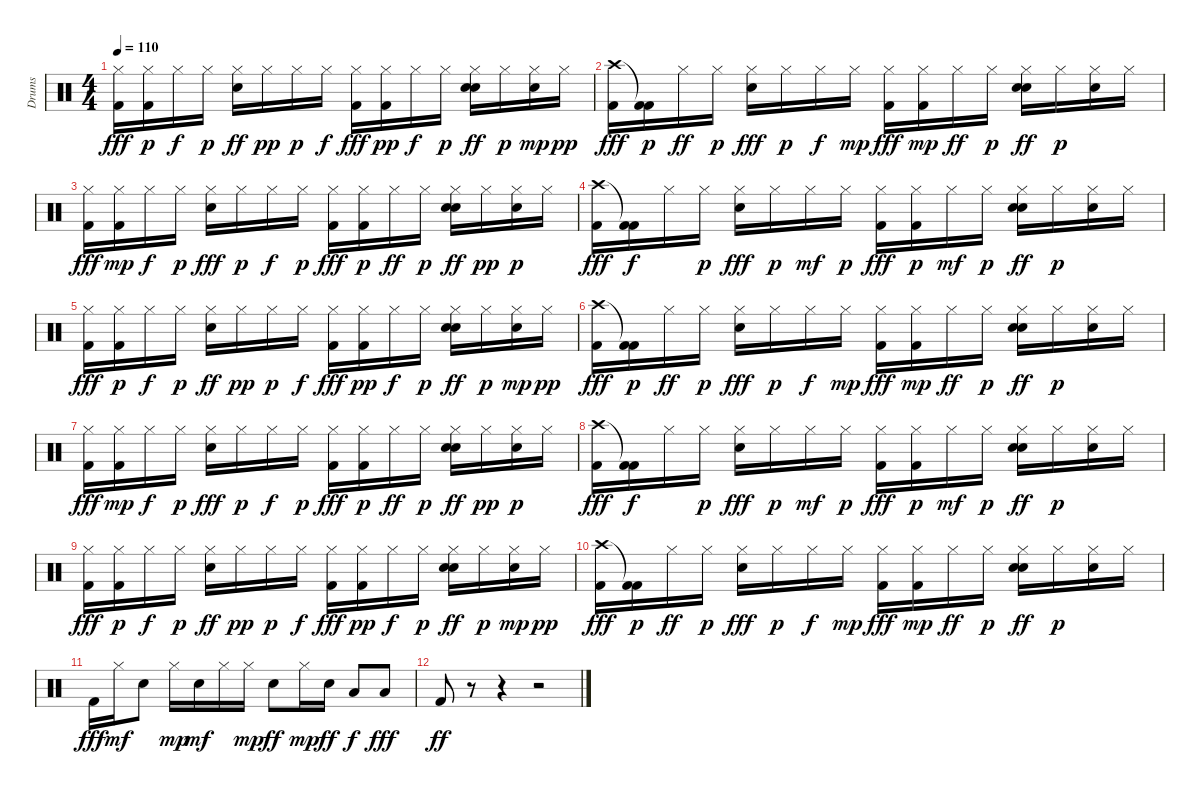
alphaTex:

\track ("Drums" "Drums") {instrument percussion}
\staff {score}
\articulation defaults
\ts (4 4)
\tempo 110
\clef neutral
\ks c
("Hi-Hat (closed)" "Kick (hit) 2").16{dy fff} ("Hi-Hat (closed)" "Kick (hit) 2").16{dy p} "Hi-Hat (closed)".16{dy f} "Hi-Hat (closed)".16{dy p} ("Hi-Hat (closed)" "Snare (hit) 2").16{dy ff} "Hi-Hat (closed)".16{dy pp} "Hi-Hat (closed)".16{dy p} "Hi-Hat (closed)".16{dy f} ("Hi-Hat (closed)" "Kick (hit) 2").16{dy fff} ("Hi-Hat (closed)" "Kick (hit) 2").16{dy pp} "Hi-Hat (closed)".16{dy f} "Hi-Hat (closed)".16{dy p} ("Hi-Hat (closed)" "Snare (hit) 2" "Hand Clap (hit)").16{dy ff} "Hi-Hat (closed)".16{dy p} ("Hi-Hat (closed)" "Hand Clap (hit)").16{dy mp} "Hi-Hat (closed)".16{dy pp} |
("Crash high (hit)" "Kick (hit) 2").16{dy fff} ("Kick (hit) 2"{t} "Kick (hit) 2").16{dy p} "Hi-Hat (closed)".16{dy ff} "Hi-Hat (closed)".16{dy p} ("Hi-Hat (closed)" "Snare (hit) 2").16{dy fff} "Hi-Hat (closed)".16{dy p} "Hi-Hat (closed)".16{dy f} "Hi-Hat (closed)".16{dy mp} ("Hi-Hat (closed)" "Kick (hit) 2").16{dy fff} ("Hi-Hat (closed)" "Kick (hit) 2").16{dy mp} "Hi-Hat (closed)".16{dy ff} "Hi-Hat (closed)".16{dy p} ("Hi-Hat (closed)" "Snare (hit) 2" "Hand Clap (hit)").16{dy ff} "Hi-Hat (closed)".16{dy p} ("Hi-Hat (closed)" "Hand Clap (hit)").16 "Hi-Hat (closed)".16 |
("Hi-Hat (closed)" "Kick (hit) 2").16{dy fff} ("Hi-Hat (closed)" "Kick (hit) 2").16{dy mp} "Hi-Hat (closed)".16{dy f} "Hi-Hat (closed)".16{dy p} ("Hi-Hat (closed)" "Snare (hit) 2").16{dy fff} "Hi-Hat (closed)".16{dy p} "Hi-Hat (closed)".16{dy f} "Hi-Hat (closed)".16{dy p} ("Hi-Hat (closed)" "Kick (hit) 2").16{dy fff} ("Hi-Hat (closed)" "Kick (hit) 2").16{dy p} "Hi-Hat (closed)".16{dy ff} "Hi-Hat (closed)".16{dy p} ("Hi-Hat (closed)" "Snare (hit) 2" "Hand Clap (hit)").16{dy ff} "Hi-Hat (closed)".16{dy pp} ("Hi-Hat (closed)" "Hand Clap (hit)").16{dy p} "Hi-Hat (closed)".16 |
("Crash high (hit)" "Kick (hit) 2").16{dy fff} ("Kick (hit) 2"{t} "Kick (hit) 2").16{dy f} "Hi-Hat (closed)".16 "Hi-Hat (closed)".16{dy p} ("Hi-Hat (closed)" "Snare (hit) 2").16{dy fff} "Hi-Hat (closed)".16{dy p} "Hi-Hat (closed)".16{dy mf} "Hi-Hat (closed)".16{dy p} ("Hi-Hat (closed)" "Kick (hit) 2").16{dy fff} ("Hi-Hat (closed)" "Kick (hit) 2").16{dy p} "Hi-Hat (closed)".16{dy mf} "Hi-Hat (closed)".16{dy p} ("Hi-Hat (closed)" "Snare (hit) 2" "Hand Clap (hit)").16{dy ff} "Hi-Hat (closed)".16{dy p} ("Hi-Hat (closed)" "Hand Clap (hit)").16 "Hi-Hat (closed)".16 |
("Hi-Hat (closed)" "Kick (hit) 2").16{dy fff} ("Hi-Hat (closed)" "Kick (hit) 2").16{dy p} "Hi-Hat (closed)".16{dy f} "Hi-Hat (closed)".16{dy p} ("Hi-Hat (closed)" "Snare (hit) 2").16{dy ff} "Hi-Hat (closed)".16{dy pp} "Hi-Hat (closed)".16{dy p} "Hi-Hat (closed)".16{dy f} ("Hi-Hat (closed)" "Kick (hit) 2").16{dy fff} ("Hi-Hat (closed)" "Kick (hit) 2").16{dy pp} "Hi-Hat (closed)".16{dy f} "Hi-Hat (closed)".16{dy p} ("Hi-Hat (closed)" "Snare (hit) 2" "Hand Clap (hit)").16{dy ff} "Hi-Hat (closed)".16{dy p} ("Hi-Hat (closed)" "Hand Clap (hit)").16{dy mp} "Hi-Hat (closed)".16{dy pp} |
("Crash high (hit)" "Kick (hit) 2").16{dy fff} ("Kick (hit) 2"{t} "Kick (hit) 2").16{dy p} "Hi-Hat (closed)".16{dy ff} "Hi-Hat (closed)".16{dy p} ("Hi-Hat (closed)" "Snare (hit) 2").16{dy fff} "Hi-Hat (closed)".16{dy p} "Hi-Hat (closed)".16{dy f} "Hi-Hat (closed)".16{dy mp} ("Hi-Hat (closed)" "Kick (hit) 2").16{dy fff} ("Hi-Hat (closed)" "Kick (hit) 2").16{dy mp} "Hi-Hat (closed)".16{dy ff} "Hi-Hat (closed)".16{dy p} ("Hi-Hat (closed)" "Snare (hit) 2" "Hand Clap (hit)").16{dy ff} "Hi-Hat (closed)".16{dy p} ("Hi-Hat (closed)" "Hand Clap (hit)").16 "Hi-Hat (closed)".16 |
("Hi-Hat (closed)" "Kick (hit) 2").16{dy fff} ("Hi-Hat (closed)" "Kick (hit) 2").16{dy mp} "Hi-Hat (closed)".16{dy f} "Hi-Hat (closed)".16{dy p} ("Hi-Hat (closed)" "Snare (hit) 2").16{dy fff} "Hi-Hat (closed)".16{dy p} "Hi-Hat (closed)".16{dy f} "Hi-Hat (closed)".16{dy p} ("Hi-Hat (closed)" "Kick (hit) 2").16{dy fff} ("Hi-Hat (closed)" "Kick (hit) 2").16{dy p} "Hi-Hat (closed)".16{dy ff} "Hi-Hat (closed)".16{dy p} ("Hi-Hat (closed)" "Snare (hit) 2" "Hand Clap (hit)").16{dy ff} "Hi-Hat (closed)".16{dy pp} ("Hi-Hat (closed)" "Hand Clap (hit)").16{dy p} "Hi-Hat (closed)".16 |
("Crash high (hit)" "Kick (hit) 2").16{dy fff} ("Kick (hit) 2"{t} "Kick (hit) 2").16{dy f} "Hi-Hat (closed)".16 "Hi-Hat (closed)".16{dy p} ("Hi-Hat (closed)" "Snare (hit) 2").16{dy fff} "Hi-Hat (closed)".16{dy p} "Hi-Hat (closed)".16{dy mf} "Hi-Hat (closed)".16{dy p} ("Hi-Hat (closed)" "Kick (hit) 2").16{dy fff} ("Hi-Hat (closed)" "Kick (hit) 2").16{dy p} "Hi-Hat (closed)".16{dy mf} "Hi-Hat (closed)".16{dy p} ("Hi-Hat (closed)" "Snare (hit) 2" "Hand Clap (hit)").16{dy ff} "Hi-Hat (closed)".16{dy p} ("Hi-Hat (closed)" "Hand Clap (hit)").16 "Hi-Hat (closed)".16 |
("Hi-Hat (closed)" "Kick (hit) 2").16{dy fff} ("Hi-Hat (closed)" "Kick (hit) 2").16{dy p} "Hi-Hat (closed)".16{dy f} "Hi-Hat (closed)".16{dy p} ("Hi-Hat (closed)" "Snare (hit) 2").16{dy ff} "Hi-Hat (closed)".16{dy pp} "Hi-Hat (closed)".16{dy p} "Hi-Hat (closed)".16{dy f} ("Hi-Hat (closed)" "Kick (hit) 2").16{dy fff} ("Hi-Hat (closed)" "Kick (hit) 2").16{dy pp} "Hi-Hat (closed)".16{dy f} "Hi-Hat (closed)".16{dy p} ("Hi-Hat (closed)" "Snare (hit) 2" "Hand Clap (hit)").16{dy ff} "Hi-Hat (closed)".16{dy p} ("Hi-Hat (closed)" "Hand Clap (hit)").16{dy mp} "Hi-Hat (closed)".16{dy pp} |
("Crash high (hit)" "Kick (hit) 2").16{dy fff} ("Kick (hit) 2"{t} "Kick (hit) 2").16{dy p} "Hi-Hat (closed)".16{dy ff} "Hi-Hat (closed)".16{dy p} ("Hi-Hat (closed)" "Snare (hit) 2").16{dy fff} "Hi-Hat (closed)".16{dy p} "Hi-Hat (closed)".16{dy f} "Hi-Hat (closed)".16{dy mp} ("Hi-Hat (closed)" "Kick (hit) 2").16{dy fff} ("Hi-Hat (closed)" "Kick (hit) 2").16{dy mp} "Hi-Hat (closed)".16{dy ff} "Hi-Hat (closed)".16{dy p} ("Hi-Hat (closed)" "Snare (hit) 2" "Hand Clap (hit)").16{dy ff} "Hi-Hat (closed)".16{dy p} ("Hi-Hat (closed)" "Hand Clap (hit)").16 "Hi-Hat (closed)".16 |
"Kick (hit) 2".16{dy fff} "Hi-Hat (closed)".16{dy mf} "Snare (hit) 2".8 "Hi-Hat (closed)".16{dy mp} "Snare (hit) 2".16{dy mf} "Hi-Hat (closed)".16 "Hi-Hat (closed)".16{dy mp} "Snare (hit) 2".8{dy ff} "Hi-Hat (closed)".16{dy mp} "Snare (hit) 2".16{dy ff} "Low Floor Tom (hit)".8{dy f} "Low Floor Tom (hit)".8{dy fff} |
"Kick (hit) 2".8{dy ff} r.8 r.4 r.2
